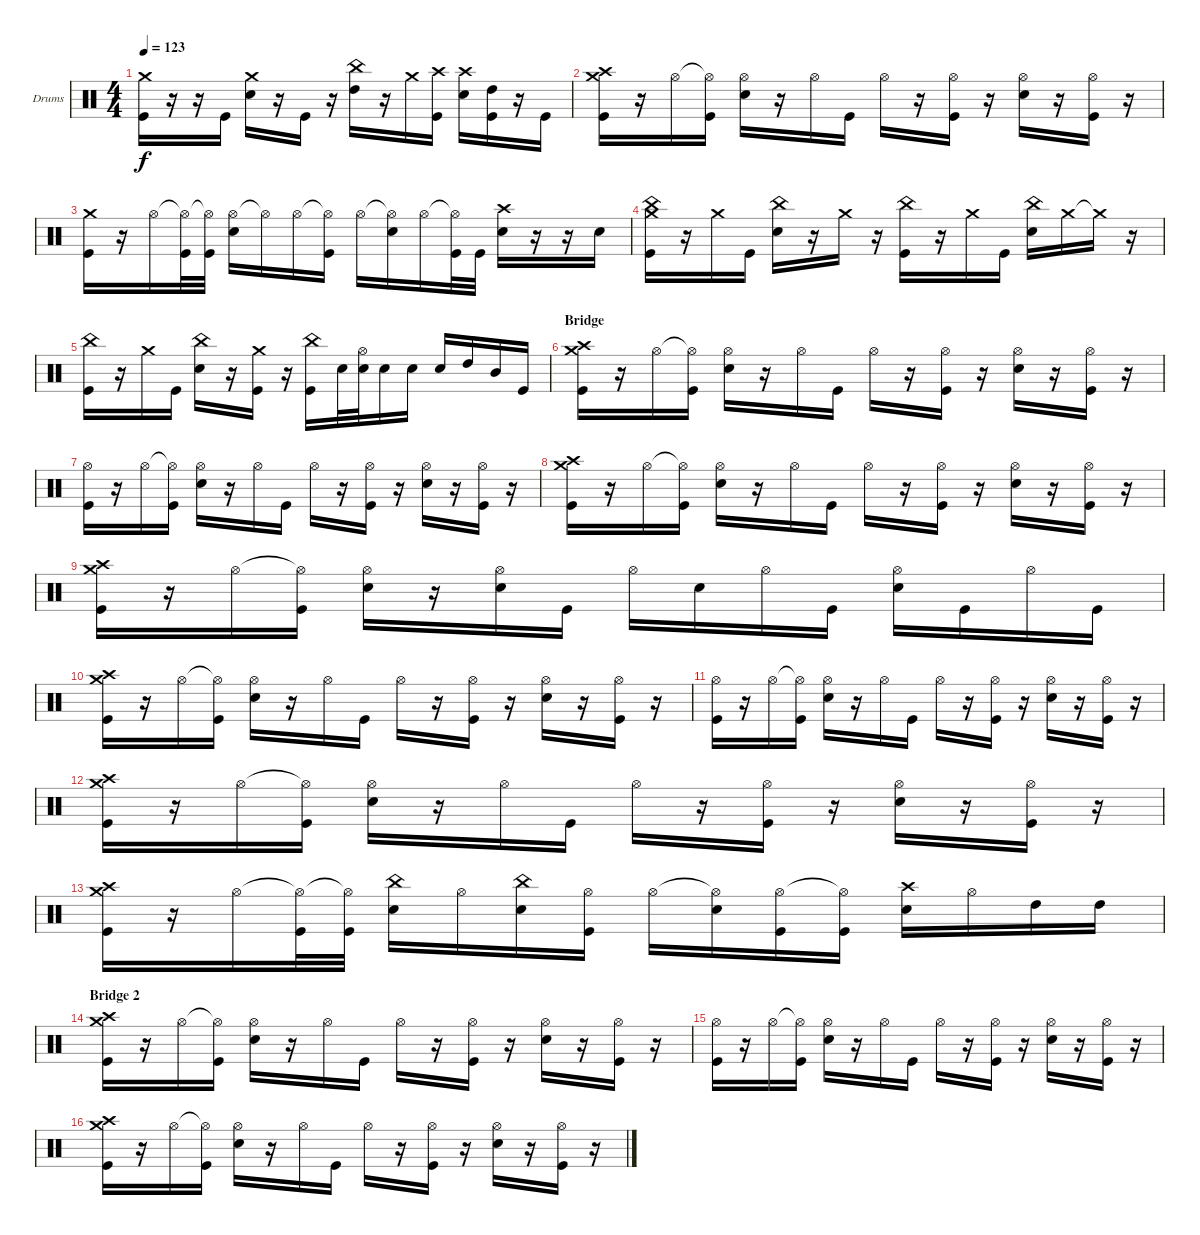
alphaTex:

\bracketExtendMode groupsimilarinstruments
\firstSystemTrackNameOrientation horizontal
\otherSystemsTrackNameOrientation horizontal
\track ("Drumkit" "Drums") {instrument percussion}
\staff {score}
\articulation defaults
\ts (4 4)
\tempo 123
\clef neutral
\ks c
("Crash medium (hit)" "Kick (hit)").16{dy f} r.16 r.16 "Kick (hit)".16 ("Crash medium (hit)" "Snare (hit) 2").16 r.16 "Kick (hit)".16 r.16 ("China (hit)" "High Tom (hit)").16 r.16 "Crash medium (hit)".16 ("Crash high (hit)" "Kick (hit)").16 ("Crash high (hit)" "Snare (hit) 2").16 ("High Tom (hit)" "Kick (hit)").16 r.16 "Kick (hit)".16 |
("Crash medium (hit)" "Crash high (hit)" "Kick (hit)").16 r.16 "Hi-Hat (open)".16 ("Hi-Hat (open)"{t} "Kick (hit)").16 ("Hi-Hat (open)" "Snare (hit) 2").16 r.16 "Hi-Hat (open)".16 "Kick (hit)".16 "Hi-Hat (open)".16 r.16 ("Hi-Hat (open)" "Kick (hit)").16 r.16 ("Hi-Hat (open)" "Snare (hit) 2").16 r.16 ("Hi-Hat (open)" "Kick (hit)").16 r.16 |
("Crash medium (hit)" "Kick (hit)").16 r.16 "Hi-Hat (open)".16 ("Hi-Hat (open)"{t} "Kick (hit)").32 ("Hi-Hat (open)"{t} "Kick (hit)").32 ("Hi-Hat (open)" "Snare (hit) 2").16 "Hi-Hat (open)"{t}.16 "Hi-Hat (open)".16 ("Hi-Hat (open)"{t} "Kick (hit)").16 "Hi-Hat (open)".16 ("Hi-Hat (open)"{t} "Snare (hit) 2").16 "Hi-Hat (open)".16 ("Hi-Hat (open)"{t} "Kick (hit)").32 "Kick (hit)".32 ("Crash high (hit)" "Snare (hit) 2").16 r.16 r.16 "Snare (hit) 2".16 |
("Crash medium (hit)" "China (hit)" "Kick (hit)").16 r.16 "Crash medium (hit)".16 "Kick (hit)".16 ("China (hit)" "Snare (hit) 2").16 r.16 "Crash medium (hit)".16 r.16 ("China (hit)" "Kick (hit)").16 r.16 "Crash medium (hit)".16 "Kick (hit)".16 ("China (hit)" "Snare (hit) 2").16 "Crash medium (hit)".16 "Crash medium (hit)"{t}.16 r.16 |
("China (hit)" "Kick (hit)").16 r.16 "Crash medium (hit)".16 "Kick (hit)".16 ("China (hit)" "Snare (hit) 2").16 r.16 ("Crash medium (hit)" "Kick (hit)").16 r.16 ("China (hit)" "Kick (hit)").16 "Snare (hit) 2".32 ("Hi-Hat (open)" "Snare (hit) 2").32 "Snare (hit) 2".16 "Snare (hit) 2".16 "Snare (hit) 2".16 "High Tom (hit)".16 "Mid Tom (hit)".16 "Kick (hit)".16 |
\section ("" "Bridge")
("Crash medium (hit)" "Crash high (hit)" "Kick (hit)").16 r.16 "Hi-Hat (open)".16 ("Hi-Hat (open)"{t} "Kick (hit)").16 ("Hi-Hat (open)" "Snare (hit) 2").16 r.16 "Hi-Hat (open)".16 "Kick (hit)".16 "Hi-Hat (open)".16 r.16 ("Hi-Hat (open)" "Kick (hit)").16 r.16 ("Hi-Hat (open)" "Snare (hit) 2").16 r.16 ("Hi-Hat (open)" "Kick (hit)").16 r.16 |
("Hi-Hat (open)" "Kick (hit)").16 r.16 "Hi-Hat (open)".16 ("Hi-Hat (open)"{t} "Kick (hit)").16 ("Hi-Hat (open)" "Snare (hit) 2").16 r.16 "Hi-Hat (open)".16 "Kick (hit)".16 "Hi-Hat (open)".16 r.16 ("Hi-Hat (open)" "Kick (hit)").16 r.16 ("Hi-Hat (open)" "Snare (hit) 2").16 r.16 ("Hi-Hat (open)" "Kick (hit)").16 r.16 |
("Crash medium (hit)" "Crash high (hit)" "Kick (hit)").16 r.16 "Hi-Hat (open)".16 ("Hi-Hat (open)"{t} "Kick (hit)").16 ("Hi-Hat (open)" "Snare (hit) 2").16 r.16 "Hi-Hat (open)".16 "Kick (hit)".16 "Hi-Hat (open)".16 r.16 ("Hi-Hat (open)" "Kick (hit)").16 r.16 ("Hi-Hat (open)" "Snare (hit) 2").16 r.16 ("Hi-Hat (open)" "Kick (hit)").16 r.16 |
("Crash medium (hit)" "Crash high (hit)" "Kick (hit)").16 r.16 "Hi-Hat (open)".16 ("Hi-Hat (open)"{t} "Kick (hit)").16 ("Hi-Hat (open)" "Snare (hit) 2").16 r.16 ("Hi-Hat (open)" "Snare (hit) 2").16 "Kick (hit)".16 "Hi-Hat (open)".16 "Snare (hit) 2".16 "Hi-Hat (open)".16 "Kick (hit)".16 ("Hi-Hat (open)" "Snare (hit) 2").16 "Kick (hit)".16 "Hi-Hat (open)".16 "Kick (hit)".16 |
("Crash medium (hit)" "Crash high (hit)" "Kick (hit)").16 r.16 "Hi-Hat (open)".16 ("Hi-Hat (open)"{t} "Kick (hit)").16 ("Hi-Hat (open)" "Snare (hit) 2").16 r.16 "Hi-Hat (open)".16 "Kick (hit)".16 "Hi-Hat (open)".16 r.16 ("Hi-Hat (open)" "Kick (hit)").16 r.16 ("Hi-Hat (open)" "Snare (hit) 2").16 r.16 ("Hi-Hat (open)" "Kick (hit)").16 r.16 |
("Hi-Hat (open)" "Kick (hit)").16 r.16 "Hi-Hat (open)".16 ("Hi-Hat (open)"{t} "Kick (hit)").16 ("Hi-Hat (open)" "Snare (hit) 2").16 r.16 "Hi-Hat (open)".16 "Kick (hit)".16 "Hi-Hat (open)".16 r.16 ("Hi-Hat (open)" "Kick (hit)").16 r.16 ("Hi-Hat (open)" "Snare (hit) 2").16 r.16 ("Hi-Hat (open)" "Kick (hit)").16 r.16 |
("Crash medium (hit)" "Crash high (hit)" "Kick (hit)").16 r.16 "Hi-Hat (open)".16 ("Hi-Hat (open)"{t} "Kick (hit)").16 ("Hi-Hat (open)" "Snare (hit) 2").16 r.16 "Hi-Hat (open)".16 "Kick (hit)".16 "Hi-Hat (open)".16 r.16 ("Hi-Hat (open)" "Kick (hit)").16 r.16 ("Hi-Hat (open)" "Snare (hit) 2").16 r.16 ("Hi-Hat (open)" "Kick (hit)").16 r.16 |
("Crash medium (hit)" "Crash high (hit)" "Kick (hit)").16 r.16 "Hi-Hat (open)".16 ("Hi-Hat (open)"{t} "Kick (hit)").32 ("Hi-Hat (open)"{t} "Kick (hit)").32 ("China (hit)" "Snare (hit) 2").16 "Hi-Hat (open)".16 ("China (hit)" "Snare (hit) 2").16 ("Hi-Hat (open)" "Kick (hit)").16 "Hi-Hat (open)".16 ("Hi-Hat (open)"{t} "Snare (hit) 2").16 ("Hi-Hat (open)" "Kick (hit)").16 ("Hi-Hat (open)"{t} "Kick (hit)").16 ("Crash high (hit)" "Snare (hit) 2").16 "Hi-Hat (open)".16 "High Tom (hit)".16 "High Tom (hit)".16 |
\section ("" "Bridge 2")
("Crash medium (hit)" "Crash high (hit)" "Kick (hit)").16 r.16 "Hi-Hat (open)".16 ("Hi-Hat (open)"{t} "Kick (hit)").16 ("Hi-Hat (open)" "Snare (hit) 2").16 r.16 "Hi-Hat (open)".16 "Kick (hit)".16 "Hi-Hat (open)".16 r.16 ("Hi-Hat (open)" "Kick (hit)").16 r.16 ("Hi-Hat (open)" "Snare (hit) 2").16 r.16 ("Hi-Hat (open)" "Kick (hit)").16 r.16 |
("Hi-Hat (open)" "Kick (hit)").16 r.16 "Hi-Hat (open)".16 ("Hi-Hat (open)"{t} "Kick (hit)").16 ("Hi-Hat (open)" "Snare (hit) 2").16 r.16 "Hi-Hat (open)".16 "Kick (hit)".16 "Hi-Hat (open)".16 r.16 ("Hi-Hat (open)" "Kick (hit)").16 r.16 ("Hi-Hat (open)" "Snare (hit) 2").16 r.16 ("Hi-Hat (open)" "Kick (hit)").16 r.16 |
("Crash medium (hit)" "Crash high (hit)" "Kick (hit)").16 r.16 "Hi-Hat (open)".16 ("Hi-Hat (open)"{t} "Kick (hit)").16 ("Hi-Hat (open)" "Snare (hit) 2").16 r.16 "Hi-Hat (open)".16 "Kick (hit)".16 "Hi-Hat (open)".16 r.16 ("Hi-Hat (open)" "Kick (hit)").16 r.16 ("Hi-Hat (open)" "Snare (hit) 2").16 r.16 ("Hi-Hat (open)" "Kick (hit)").16 r.16
